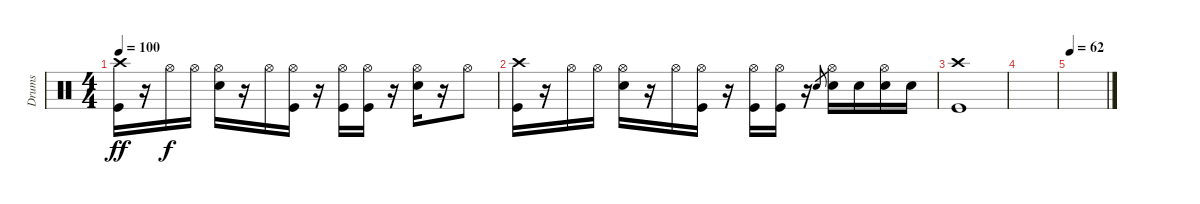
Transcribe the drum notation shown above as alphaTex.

\track ("Drums" "Drums") {instrument percussion}
\staff {score}
\articulation defaults
\ts (4 4)
\tempo 100
\clef neutral
\ks c
("Crash high (hit)" "Kick (hit)").16{dy ff} r.16 "Hi-Hat (open)".16{dy f} "Hi-Hat (open)".16 ("Hi-Hat (open)" "Electric Snare (hit)").16 r.16 "Hi-Hat (open)".16 ("Hi-Hat (open)" "Kick (hit)").16 r.16 ("Hi-Hat (open)" "Kick (hit)").16 ("Hi-Hat (open)" "Kick (hit)").16 r.16 ("Hi-Hat (open)" "Electric Snare (hit)").16 r.16 "Hi-Hat (open)".8 |
("Crash high (hit)" "Kick (hit)").16 r.16 "Hi-Hat (open)".16 "Hi-Hat (open)".16 ("Hi-Hat (open)" "Electric Snare (hit)").16 r.16 "Hi-Hat (open)".16 ("Hi-Hat (open)" "Kick (hit)").16 r.16 ("Hi-Hat (open)" "Kick (hit)").16 ("Hi-Hat (open)" "Kick (hit)").16 r.16 "Electric Snare (hit)".8{gr} ("Hi-Hat (open)" "Electric Snare (hit)").16 "Electric Snare (hit)".16 ("Hi-Hat (open)" "Electric Snare (hit)").16 "Electric Snare (hit)".16 |
("Crash high (hit)" "Kick (hit)").1 |
|
\tempo 62
